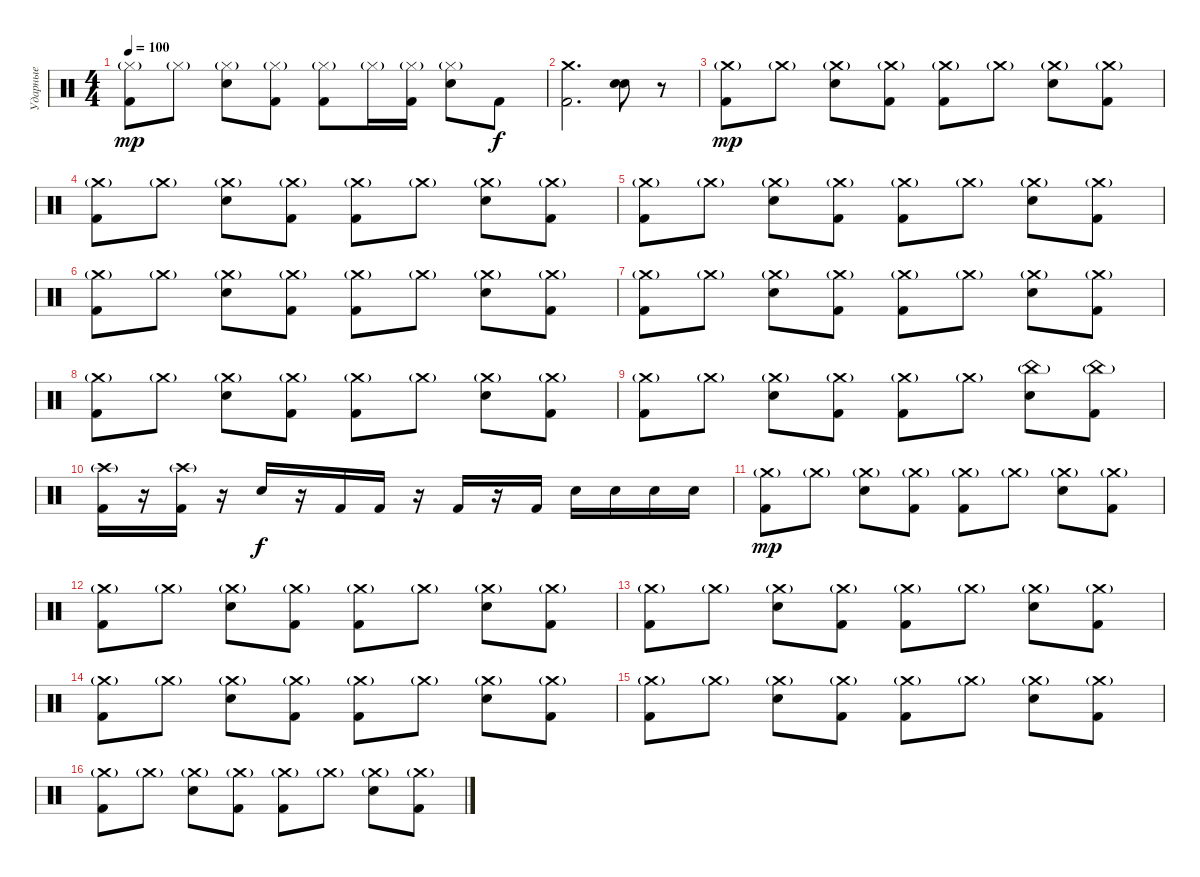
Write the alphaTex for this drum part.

\track ("Ударные" "Ударные") {instrument percussion}
\staff {score}
\articulation defaults
\ts (4 4)
\tempo 100
\clef neutral
\ks c
("Hi-Hat (closed)"{g} "Kick (hit) 2").8{dy mp} "Hi-Hat (closed)"{g}.8 ("Hi-Hat (closed)"{g} "Electric Snare (hit)").8 ("Hi-Hat (closed)"{g} "Kick (hit) 2").8 ("Hi-Hat (closed)"{g} "Kick (hit) 2").8 "Hi-Hat (closed)"{g}.16 ("Hi-Hat (closed)"{g} "Kick (hit) 2").16 ("Hi-Hat (closed)"{g} "Electric Snare (hit)").8 "Kick (hit) 2".8{dy f} |
("Crash medium (hit)" "Kick (hit) 2").2{d} ("Snare (hit) 2" "Electric Snare (hit)").8 r.8 |
("Crash medium (hit)"{g} "Kick (hit) 2").8{dy mp} "Crash medium (hit)"{g}.8 ("Crash medium (hit)"{g} "Electric Snare (hit)").8 ("Crash medium (hit)"{g} "Kick (hit) 2").8 ("Crash medium (hit)"{g} "Kick (hit) 2").8 "Crash medium (hit)"{g}.8 ("Crash medium (hit)"{g} "Electric Snare (hit)").8 ("Crash medium (hit)"{g} "Kick (hit) 2").8 |
("Crash medium (hit)"{g} "Kick (hit) 2").8 "Crash medium (hit)"{g}.8 ("Crash medium (hit)"{g} "Electric Snare (hit)").8 ("Crash medium (hit)"{g} "Kick (hit) 2").8 ("Crash medium (hit)"{g} "Kick (hit) 2").8 "Crash medium (hit)"{g}.8 ("Crash medium (hit)"{g} "Electric Snare (hit)").8 ("Crash medium (hit)"{g} "Kick (hit) 2").8 |
("Crash medium (hit)"{g} "Kick (hit) 2").8 "Crash medium (hit)"{g}.8 ("Crash medium (hit)"{g} "Electric Snare (hit)").8 ("Crash medium (hit)"{g} "Kick (hit) 2").8 ("Crash medium (hit)"{g} "Kick (hit) 2").8 "Crash medium (hit)"{g}.8 ("Crash medium (hit)"{g} "Electric Snare (hit)").8 ("Crash medium (hit)"{g} "Kick (hit) 2").8 |
("Crash medium (hit)"{g} "Kick (hit) 2").8 "Crash medium (hit)"{g}.8 ("Crash medium (hit)"{g} "Electric Snare (hit)").8 ("Crash medium (hit)"{g} "Kick (hit) 2").8 ("Crash medium (hit)"{g} "Kick (hit) 2").8 "Crash medium (hit)"{g}.8 ("Crash medium (hit)"{g} "Electric Snare (hit)").8 ("Crash medium (hit)"{g} "Kick (hit) 2").8 |
("Crash medium (hit)"{g} "Kick (hit) 2").8 "Crash medium (hit)"{g}.8 ("Crash medium (hit)"{g} "Electric Snare (hit)").8 ("Crash medium (hit)"{g} "Kick (hit) 2").8 ("Crash medium (hit)"{g} "Kick (hit) 2").8 "Crash medium (hit)"{g}.8 ("Crash medium (hit)"{g} "Electric Snare (hit)").8 ("Crash medium (hit)"{g} "Kick (hit) 2").8 |
("Crash medium (hit)"{g} "Kick (hit) 2").8 "Crash medium (hit)"{g}.8 ("Crash medium (hit)"{g} "Electric Snare (hit)").8 ("Crash medium (hit)"{g} "Kick (hit) 2").8 ("Crash medium (hit)"{g} "Kick (hit) 2").8 "Crash medium (hit)"{g}.8 ("Crash medium (hit)"{g} "Electric Snare (hit)").8 ("Crash medium (hit)"{g} "Kick (hit) 2").8 |
("Crash medium (hit)"{g} "Kick (hit) 2").8 "Crash medium (hit)"{g}.8 ("Crash medium (hit)"{g} "Electric Snare (hit)").8 ("Crash medium (hit)"{g} "Kick (hit) 2").8 ("Crash medium (hit)"{g} "Kick (hit) 2").8 "Crash medium (hit)"{g}.8 ("China (hit)"{g} "Electric Snare (hit)").8 ("China (hit)"{g} "Kick (hit) 2").8 |
("Crash high (hit)"{g} "Kick (hit) 2").16 r.16 ("Crash high (hit)"{g} "Kick (hit) 2").16 r.16 "Electric Snare (hit)".16{dy f} r.16 "Kick (hit) 2".16 "Kick (hit) 2".16 r.16 "Kick (hit) 2".16 r.16 "Kick (hit) 2".16 "Electric Snare (hit)".16 "Electric Snare (hit)".16 "Electric Snare (hit)".16 "Electric Snare (hit)".16 |
("Crash medium (hit)"{g} "Kick (hit) 2").8{dy mp} "Crash medium (hit)"{g}.8 ("Crash medium (hit)"{g} "Electric Snare (hit)").8 ("Crash medium (hit)"{g} "Kick (hit) 2").8 ("Crash medium (hit)"{g} "Kick (hit) 2").8 "Crash medium (hit)"{g}.8 ("Crash medium (hit)"{g} "Electric Snare (hit)").8 ("Crash medium (hit)"{g} "Kick (hit) 2").8 |
("Crash medium (hit)"{g} "Kick (hit) 2").8 "Crash medium (hit)"{g}.8 ("Crash medium (hit)"{g} "Electric Snare (hit)").8 ("Crash medium (hit)"{g} "Kick (hit) 2").8 ("Crash medium (hit)"{g} "Kick (hit) 2").8 "Crash medium (hit)"{g}.8 ("Crash medium (hit)"{g} "Electric Snare (hit)").8 ("Crash medium (hit)"{g} "Kick (hit) 2").8 |
("Crash medium (hit)"{g} "Kick (hit) 2").8 "Crash medium (hit)"{g}.8 ("Crash medium (hit)"{g} "Electric Snare (hit)").8 ("Crash medium (hit)"{g} "Kick (hit) 2").8 ("Crash medium (hit)"{g} "Kick (hit) 2").8 "Crash medium (hit)"{g}.8 ("Crash medium (hit)"{g} "Electric Snare (hit)").8 ("Crash medium (hit)"{g} "Kick (hit) 2").8 |
("Crash medium (hit)"{g} "Kick (hit) 2").8 "Crash medium (hit)"{g}.8 ("Crash medium (hit)"{g} "Electric Snare (hit)").8 ("Crash medium (hit)"{g} "Kick (hit) 2").8 ("Crash medium (hit)"{g} "Kick (hit) 2").8 "Crash medium (hit)"{g}.8 ("Crash medium (hit)"{g} "Electric Snare (hit)").8 ("Crash medium (hit)"{g} "Kick (hit) 2").8 |
("Crash medium (hit)"{g} "Kick (hit) 2").8 "Crash medium (hit)"{g}.8 ("Crash medium (hit)"{g} "Electric Snare (hit)").8 ("Crash medium (hit)"{g} "Kick (hit) 2").8 ("Crash medium (hit)"{g} "Kick (hit) 2").8 "Crash medium (hit)"{g}.8 ("Crash medium (hit)"{g} "Electric Snare (hit)").8 ("Crash medium (hit)"{g} "Kick (hit) 2").8 |
("Crash medium (hit)"{g} "Kick (hit) 2").8 "Crash medium (hit)"{g}.8 ("Crash medium (hit)"{g} "Electric Snare (hit)").8 ("Crash medium (hit)"{g} "Kick (hit) 2").8 ("Crash medium (hit)"{g} "Kick (hit) 2").8 "Crash medium (hit)"{g}.8 ("Crash medium (hit)"{g} "Electric Snare (hit)").8 ("Crash medium (hit)"{g} "Kick (hit) 2").8
